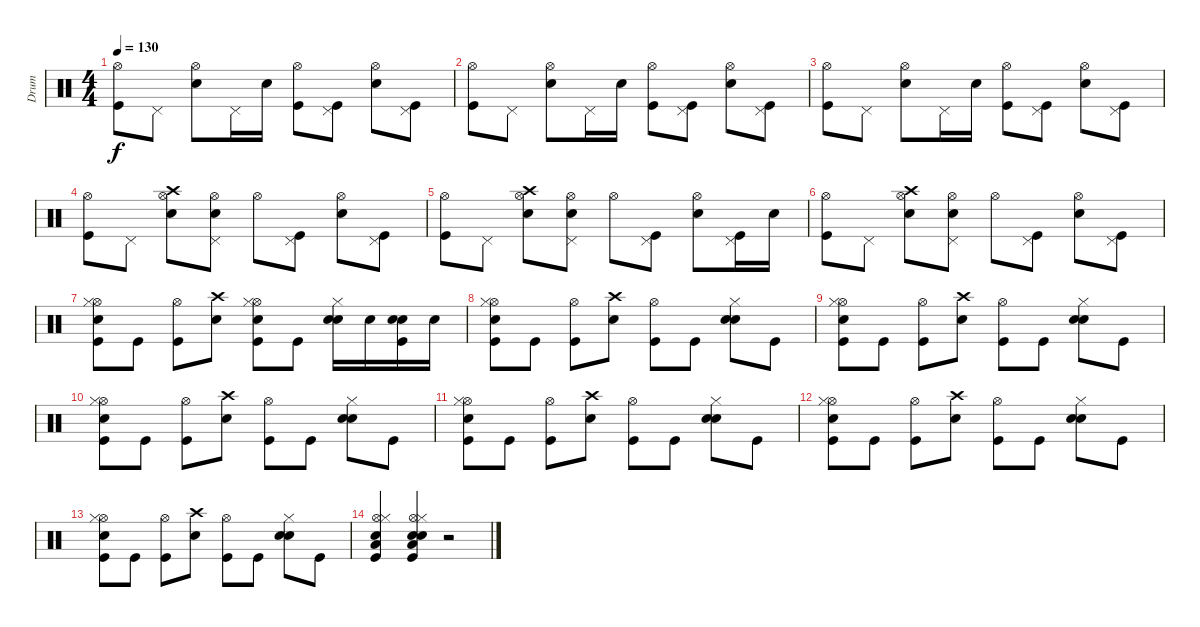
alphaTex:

\track ("Drum" "Drum") {instrument percussion}
\staff {score}
\articulation defaults
\ts (4 4)
\tempo 130
\clef neutral
\ks c
("Kick (hit)" "Hi-Hat (open)").8{dy f} "Pedal Hi-Hat (hit)".8 ("Snare (hit) 2" "Hi-Hat (open)").8 "Pedal Hi-Hat (hit)".16 "Snare (hit) 2".16 ("Kick (hit)" "Hi-Hat (open)").8 ("Kick (hit)" "Pedal Hi-Hat (hit)").8 ("Snare (hit) 2" "Hi-Hat (open)").8 ("Kick (hit)" "Pedal Hi-Hat (hit)").8 |
("Kick (hit)" "Hi-Hat (open)").8 "Pedal Hi-Hat (hit)".8 ("Snare (hit) 2" "Hi-Hat (open)").8 "Pedal Hi-Hat (hit)".16 "Snare (hit) 2".16 ("Kick (hit)" "Hi-Hat (open)").8 ("Kick (hit)" "Pedal Hi-Hat (hit)").8 ("Snare (hit) 2" "Hi-Hat (open)").8 ("Kick (hit)" "Pedal Hi-Hat (hit)").8 |
("Kick (hit)" "Hi-Hat (open)").8 "Pedal Hi-Hat (hit)".8 ("Snare (hit) 2" "Hi-Hat (open)").8 "Pedal Hi-Hat (hit)".16 "Snare (hit) 2".16 ("Kick (hit)" "Hi-Hat (open)").8 ("Kick (hit)" "Pedal Hi-Hat (hit)").8 ("Snare (hit) 2" "Hi-Hat (open)").8 ("Kick (hit)" "Pedal Hi-Hat (hit)").8 |
("Kick (hit)" "Hi-Hat (open)").8 "Pedal Hi-Hat (hit)".8 ("Snare (hit) 2" "Hi-Hat (open)" "Crash high (hit)").8 ("Snare (hit) 2" "Hi-Hat (open)" "Pedal Hi-Hat (hit)").8 "Hi-Hat (open)".8 ("Kick (hit)" "Pedal Hi-Hat (hit)").8 ("Hi-Hat (open)" "Snare (hit) 2").8 ("Kick (hit)" "Pedal Hi-Hat (hit)").8 |
("Kick (hit)" "Hi-Hat (open)").8 "Pedal Hi-Hat (hit)".8 ("Snare (hit) 2" "Hi-Hat (open)" "Crash high (hit)").8 ("Snare (hit) 2" "Hi-Hat (open)" "Pedal Hi-Hat (hit)").8 "Hi-Hat (open)".8 ("Kick (hit)" "Pedal Hi-Hat (hit)").8 ("Hi-Hat (open)" "Snare (hit) 2").8 ("Kick (hit)" "Pedal Hi-Hat (hit)").16 "Snare (hit) 2".16 |
("Kick (hit)" "Hi-Hat (open)").8 "Pedal Hi-Hat (hit)".8 ("Snare (hit) 2" "Hi-Hat (open)" "Crash high (hit)").8 ("Snare (hit) 2" "Hi-Hat (open)" "Pedal Hi-Hat (hit)").8 "Hi-Hat (open)".8 ("Kick (hit)" "Pedal Hi-Hat (hit)").8 ("Hi-Hat (open)" "Snare (hit) 2").8 ("Kick (hit)" "Pedal Hi-Hat (hit)").8 |
("Kick (hit)" "Hi-Hat (open)" "Hi-Hat (closed)" "Snare (hit) 2").8 "Kick (hit)".8 ("Kick (hit)" "Hi-Hat (open)").8 ("Snare (hit) 2" "Crash high (hit)").8 ("Kick (hit)" "Hi-Hat (open)" "Hi-Hat (closed)" "Snare (hit) 2").8 "Kick (hit)".8 ("Snare (hit) 2" "Snare (hit) 2" "Hi-Hat (closed)").16 "Snare (hit) 2".16 ("Snare (hit) 2" "Snare (hit) 2" "Kick (hit)").16 "Snare (hit) 2".16 |
("Kick (hit)" "Hi-Hat (open)" "Hi-Hat (closed)" "Snare (hit) 2").8 "Kick (hit)".8 ("Kick (hit)" "Hi-Hat (open)").8 ("Snare (hit) 2" "Crash high (hit)").8 ("Kick (hit)" "Hi-Hat (open)").8 "Kick (hit)".8 ("Snare (hit) 2" "Snare (hit) 2" "Hi-Hat (closed)").8 "Kick (hit)".8 |
("Kick (hit)" "Hi-Hat (open)" "Hi-Hat (closed)" "Snare (hit) 2").8 "Kick (hit)".8 ("Kick (hit)" "Hi-Hat (open)").8 ("Snare (hit) 2" "Crash high (hit)").8 ("Kick (hit)" "Hi-Hat (open)").8 "Kick (hit)".8 ("Snare (hit) 2" "Snare (hit) 2" "Hi-Hat (closed)").8 "Kick (hit)".8 |
("Kick (hit)" "Hi-Hat (open)" "Hi-Hat (closed)" "Snare (hit) 2").8 "Kick (hit)".8 ("Kick (hit)" "Hi-Hat (open)").8 ("Snare (hit) 2" "Crash high (hit)").8 ("Kick (hit)" "Hi-Hat (open)").8 "Kick (hit)".8 ("Snare (hit) 2" "Snare (hit) 2" "Hi-Hat (closed)").8 "Kick (hit)".8 |
("Kick (hit)" "Hi-Hat (open)" "Hi-Hat (closed)" "Snare (hit) 2").8 "Kick (hit)".8 ("Kick (hit)" "Hi-Hat (open)").8 ("Snare (hit) 2" "Crash high (hit)").8 ("Kick (hit)" "Hi-Hat (open)").8 "Kick (hit)".8 ("Snare (hit) 2" "Snare (hit) 2" "Hi-Hat (closed)").8 "Kick (hit)".8 |
("Kick (hit)" "Hi-Hat (open)" "Hi-Hat (closed)" "Snare (hit) 2").8 "Kick (hit)".8 ("Kick (hit)" "Hi-Hat (open)").8 ("Snare (hit) 2" "Crash high (hit)").8 ("Kick (hit)" "Hi-Hat (open)").8 "Kick (hit)".8 ("Snare (hit) 2" "Snare (hit) 2" "Hi-Hat (closed)").8 "Kick (hit)".8 |
("Kick (hit)" "Hi-Hat (open)" "Hi-Hat (closed)" "Snare (hit) 2").8 "Kick (hit)".8 ("Kick (hit)" "Hi-Hat (open)").8 ("Snare (hit) 2" "Crash high (hit)").8 ("Kick (hit)" "Hi-Hat (open)").8 "Kick (hit)".8 ("Snare (hit) 2" "Snare (hit) 2" "Hi-Hat (closed)").8 "Kick (hit)".8 |
("Kick (hit)" "Low Floor Tom (hit)" "Snare (hit) 2" "Hi-Hat (open)" "Hi-Hat (closed)").4 ("Kick (hit)" "Low Floor Tom (hit)" "Snare (hit) 2" "Snare (hit) 2" "Hi-Hat (open)" "Hi-Hat (closed)").4 r.2
